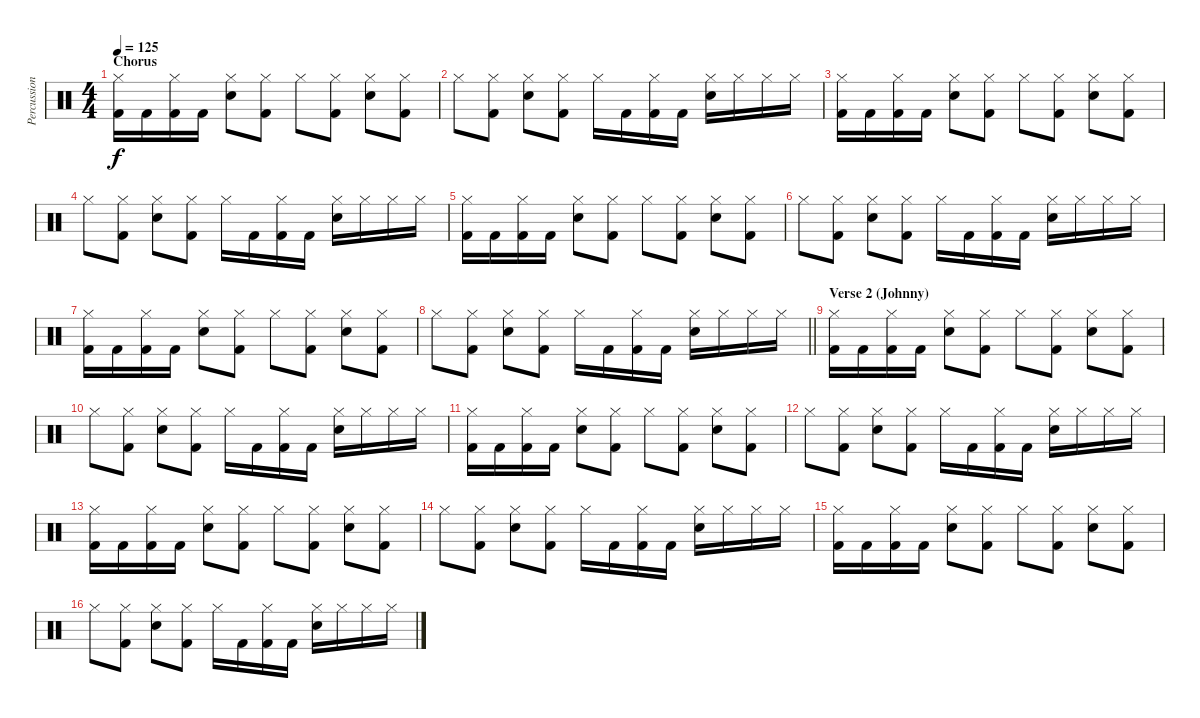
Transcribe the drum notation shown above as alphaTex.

\track ("Percussion" "Percussion") {instrument percussion}
\staff {score}
\articulation defaults
\ts (4 4)
\section ("" "Chorus")
\tempo 125
\clef neutral
\ks c
("Hi-Hat (closed)" "Kick (hit) 2").16{dy f} "Kick (hit) 2".16 ("Hi-Hat (closed)" "Kick (hit) 2").16 "Kick (hit) 2".16 ("Hi-Hat (closed)" "Electric Snare (hit)").8 ("Hi-Hat (closed)" "Kick (hit) 2").8 "Hi-Hat (closed)".8 ("Hi-Hat (closed)" "Kick (hit) 2").8 ("Hi-Hat (closed)" "Electric Snare (hit)").8 ("Hi-Hat (closed)" "Kick (hit) 2").8 |
"Hi-Hat (closed)".8 ("Hi-Hat (closed)" "Kick (hit) 2").8 ("Hi-Hat (closed)" "Electric Snare (hit)").8 ("Hi-Hat (closed)" "Kick (hit) 2").8 "Hi-Hat (closed)".16 "Kick (hit) 2".16 ("Hi-Hat (closed)" "Kick (hit) 2").16 "Kick (hit) 2".16 ("Hi-Hat (closed)" "Electric Snare (hit)").16 "Hi-Hat (closed)".16 "Hi-Hat (closed)".16 "Hi-Hat (closed)".16 |
("Hi-Hat (closed)" "Kick (hit) 2").16 "Kick (hit) 2".16 ("Hi-Hat (closed)" "Kick (hit) 2").16 "Kick (hit) 2".16 ("Hi-Hat (closed)" "Electric Snare (hit)").8 ("Hi-Hat (closed)" "Kick (hit) 2").8 "Hi-Hat (closed)".8 ("Hi-Hat (closed)" "Kick (hit) 2").8 ("Hi-Hat (closed)" "Electric Snare (hit)").8 ("Hi-Hat (closed)" "Kick (hit) 2").8 |
"Hi-Hat (closed)".8 ("Hi-Hat (closed)" "Kick (hit) 2").8 ("Hi-Hat (closed)" "Electric Snare (hit)").8 ("Hi-Hat (closed)" "Kick (hit) 2").8 "Hi-Hat (closed)".16 "Kick (hit) 2".16 ("Hi-Hat (closed)" "Kick (hit) 2").16 "Kick (hit) 2".16 ("Hi-Hat (closed)" "Electric Snare (hit)").16 "Hi-Hat (closed)".16 "Hi-Hat (closed)".16 "Hi-Hat (closed)".16 |
("Hi-Hat (closed)" "Kick (hit) 2").16 "Kick (hit) 2".16 ("Hi-Hat (closed)" "Kick (hit) 2").16 "Kick (hit) 2".16 ("Hi-Hat (closed)" "Electric Snare (hit)").8 ("Hi-Hat (closed)" "Kick (hit) 2").8 "Hi-Hat (closed)".8 ("Hi-Hat (closed)" "Kick (hit) 2").8 ("Hi-Hat (closed)" "Electric Snare (hit)").8 ("Hi-Hat (closed)" "Kick (hit) 2").8 |
"Hi-Hat (closed)".8 ("Hi-Hat (closed)" "Kick (hit) 2").8 ("Hi-Hat (closed)" "Electric Snare (hit)").8 ("Hi-Hat (closed)" "Kick (hit) 2").8 "Hi-Hat (closed)".16 "Kick (hit) 2".16 ("Hi-Hat (closed)" "Kick (hit) 2").16 "Kick (hit) 2".16 ("Hi-Hat (closed)" "Electric Snare (hit)").16 "Hi-Hat (closed)".16 "Hi-Hat (closed)".16 "Hi-Hat (closed)".16 |
("Hi-Hat (closed)" "Kick (hit) 2").16 "Kick (hit) 2".16 ("Hi-Hat (closed)" "Kick (hit) 2").16 "Kick (hit) 2".16 ("Hi-Hat (closed)" "Electric Snare (hit)").8 ("Hi-Hat (closed)" "Kick (hit) 2").8 "Hi-Hat (closed)".8 ("Hi-Hat (closed)" "Kick (hit) 2").8 ("Hi-Hat (closed)" "Electric Snare (hit)").8 ("Hi-Hat (closed)" "Kick (hit) 2").8 |
\barLineRight lightlight "Hi-Hat (closed)".8
("Hi-Hat (closed)" "Kick (hit) 2").8 ("Hi-Hat (closed)" "Electric Snare (hit)").8 ("Hi-Hat (closed)" "Kick (hit) 2").8 "Hi-Hat (closed)".16 "Kick (hit) 2".16 ("Hi-Hat (closed)" "Kick (hit) 2").16 "Kick (hit) 2".16 ("Hi-Hat (closed)" "Electric Snare (hit)").16 "Hi-Hat (closed)".16 "Hi-Hat (closed)".16 "Hi-Hat (closed)".16 |
\section ("" "Verse 2 (Johnny)")
("Hi-Hat (closed)" "Kick (hit) 2").16 "Kick (hit) 2".16 ("Hi-Hat (closed)" "Kick (hit) 2").16 "Kick (hit) 2".16 ("Hi-Hat (closed)" "Electric Snare (hit)").8 ("Hi-Hat (closed)" "Kick (hit) 2").8 "Hi-Hat (closed)".8 ("Hi-Hat (closed)" "Kick (hit) 2").8 ("Hi-Hat (closed)" "Electric Snare (hit)").8 ("Hi-Hat (closed)" "Kick (hit) 2").8 |
"Hi-Hat (closed)".8 ("Hi-Hat (closed)" "Kick (hit) 2").8 ("Hi-Hat (closed)" "Electric Snare (hit)").8 ("Hi-Hat (closed)" "Kick (hit) 2").8 "Hi-Hat (closed)".16 "Kick (hit) 2".16 ("Hi-Hat (closed)" "Kick (hit) 2").16 "Kick (hit) 2".16 ("Hi-Hat (closed)" "Electric Snare (hit)").16 "Hi-Hat (closed)".16 "Hi-Hat (closed)".16 "Hi-Hat (closed)".16 |
("Hi-Hat (closed)" "Kick (hit) 2").16 "Kick (hit) 2".16 ("Hi-Hat (closed)" "Kick (hit) 2").16 "Kick (hit) 2".16 ("Hi-Hat (closed)" "Electric Snare (hit)").8 ("Hi-Hat (closed)" "Kick (hit) 2").8 "Hi-Hat (closed)".8 ("Hi-Hat (closed)" "Kick (hit) 2").8 ("Hi-Hat (closed)" "Electric Snare (hit)").8 ("Hi-Hat (closed)" "Kick (hit) 2").8 |
"Hi-Hat (closed)".8 ("Hi-Hat (closed)" "Kick (hit) 2").8 ("Hi-Hat (closed)" "Electric Snare (hit)").8 ("Hi-Hat (closed)" "Kick (hit) 2").8 "Hi-Hat (closed)".16 "Kick (hit) 2".16 ("Hi-Hat (closed)" "Kick (hit) 2").16 "Kick (hit) 2".16 ("Hi-Hat (closed)" "Electric Snare (hit)").16 "Hi-Hat (closed)".16 "Hi-Hat (closed)".16 "Hi-Hat (closed)".16 |
("Hi-Hat (closed)" "Kick (hit) 2").16 "Kick (hit) 2".16 ("Hi-Hat (closed)" "Kick (hit) 2").16 "Kick (hit) 2".16 ("Hi-Hat (closed)" "Electric Snare (hit)").8 ("Hi-Hat (closed)" "Kick (hit) 2").8 "Hi-Hat (closed)".8 ("Hi-Hat (closed)" "Kick (hit) 2").8 ("Hi-Hat (closed)" "Electric Snare (hit)").8 ("Hi-Hat (closed)" "Kick (hit) 2").8 |
"Hi-Hat (closed)".8 ("Hi-Hat (closed)" "Kick (hit) 2").8 ("Hi-Hat (closed)" "Electric Snare (hit)").8 ("Hi-Hat (closed)" "Kick (hit) 2").8 "Hi-Hat (closed)".16 "Kick (hit) 2".16 ("Hi-Hat (closed)" "Kick (hit) 2").16 "Kick (hit) 2".16 ("Hi-Hat (closed)" "Electric Snare (hit)").16 "Hi-Hat (closed)".16 "Hi-Hat (closed)".16 "Hi-Hat (closed)".16 |
("Hi-Hat (closed)" "Kick (hit) 2").16 "Kick (hit) 2".16 ("Hi-Hat (closed)" "Kick (hit) 2").16 "Kick (hit) 2".16 ("Hi-Hat (closed)" "Electric Snare (hit)").8 ("Hi-Hat (closed)" "Kick (hit) 2").8 "Hi-Hat (closed)".8 ("Hi-Hat (closed)" "Kick (hit) 2").8 ("Hi-Hat (closed)" "Electric Snare (hit)").8 ("Hi-Hat (closed)" "Kick (hit) 2").8 |
"Hi-Hat (closed)".8 ("Hi-Hat (closed)" "Kick (hit) 2").8 ("Hi-Hat (closed)" "Electric Snare (hit)").8 ("Hi-Hat (closed)" "Kick (hit) 2").8 "Hi-Hat (closed)".16 "Kick (hit) 2".16 ("Hi-Hat (closed)" "Kick (hit) 2").16 "Kick (hit) 2".16 ("Hi-Hat (closed)" "Electric Snare (hit)").16 "Hi-Hat (closed)".16 "Hi-Hat (closed)".16 "Hi-Hat (closed)".16
